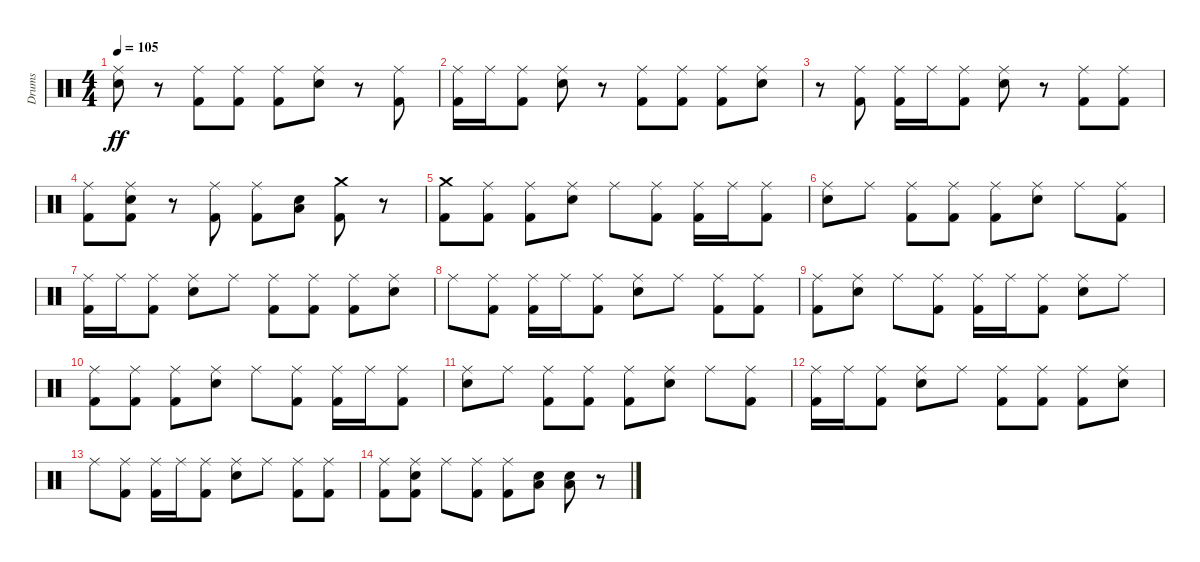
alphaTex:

\track ("Drums" "Drums") {instrument percussion}
\staff {score}
\articulation defaults
\ts (4 4)
\tempo 105
\clef neutral
\ks c
("Ride (middle)" "Electric Snare (hit)").8{dy ff} r.8 ("Ride (middle)" "Kick (hit) 2").8 ("Ride (middle)" "Kick (hit) 2").8 ("Ride (middle)" "Kick (hit) 2").8 ("Ride (middle)" "Electric Snare (hit)").8 r.8 ("Ride (middle)" "Kick (hit) 2").8 |
("Ride (middle)" "Kick (hit) 2").16 "Ride (middle)".16 ("Ride (middle)" "Kick (hit) 2").8 ("Ride (middle)" "Electric Snare (hit)").8 r.8 ("Ride (middle)" "Kick (hit) 2").8 ("Ride (middle)" "Kick (hit) 2").8 ("Ride (middle)" "Kick (hit) 2").8 ("Ride (middle)" "Electric Snare (hit)").8 |
r.8 ("Ride (middle)" "Kick (hit) 2").8 ("Ride (middle)" "Kick (hit) 2").16 "Ride (middle)".16 ("Ride (middle)" "Kick (hit) 2").8 ("Ride (middle)" "Electric Snare (hit)").8 r.8 ("Ride (middle)" "Kick (hit) 2").8 ("Ride (middle)" "Kick (hit) 2").8 |
("Ride (middle)" "Kick (hit) 2").8 ("Ride (middle)" "Electric Snare (hit)" "Kick (hit) 2").8 r.8 ("Ride (middle)" "Kick (hit) 2").8 ("Ride (middle)" "Kick (hit) 2").8 ("Electric Snare (hit)" "Low Floor Tom (hit)").8 ("Crash medium (hit)" "Kick (hit) 2").8 r.8 |
("Crash medium (hit)" "Kick (hit) 2").8 ("Ride (middle)" "Kick (hit) 2").8 ("Ride (middle)" "Kick (hit) 2").8 ("Ride (middle)" "Electric Snare (hit)").8 "Ride (middle)".8 ("Ride (middle)" "Kick (hit) 2").8 ("Ride (middle)" "Kick (hit) 2").16 "Ride (middle)".16 ("Ride (middle)" "Kick (hit) 2").8 |
("Ride (middle)" "Electric Snare (hit)").8 "Ride (middle)".8 ("Ride (middle)" "Kick (hit) 2").8 ("Ride (middle)" "Kick (hit) 2").8 ("Ride (middle)" "Kick (hit) 2").8 ("Ride (middle)" "Electric Snare (hit)").8 "Ride (middle)".8 ("Ride (middle)" "Kick (hit) 2").8 |
("Ride (middle)" "Kick (hit) 2").16 "Ride (middle)".16 ("Ride (middle)" "Kick (hit) 2").8 ("Ride (middle)" "Electric Snare (hit)").8 "Ride (middle)".8 ("Ride (middle)" "Kick (hit) 2").8 ("Ride (middle)" "Kick (hit) 2").8 ("Ride (middle)" "Kick (hit) 2").8 ("Ride (middle)" "Electric Snare (hit)").8 |
"Ride (middle)".8 ("Ride (middle)" "Kick (hit) 2").8 ("Ride (middle)" "Kick (hit) 2").16 "Ride (middle)".16 ("Ride (middle)" "Kick (hit) 2").8 ("Ride (middle)" "Electric Snare (hit)").8 "Ride (middle)".8 ("Ride (middle)" "Kick (hit) 2").8 ("Ride (middle)" "Kick (hit) 2").8 |
("Ride (middle)" "Kick (hit) 2").8 ("Ride (middle)" "Electric Snare (hit)").8 "Ride (middle)".8 ("Ride (middle)" "Kick (hit) 2").8 ("Ride (middle)" "Kick (hit) 2").16 "Ride (middle)".16 ("Ride (middle)" "Kick (hit) 2").8 ("Ride (middle)" "Electric Snare (hit)").8 "Ride (middle)".8 |
("Ride (middle)" "Kick (hit) 2").8 ("Ride (middle)" "Kick (hit) 2").8 ("Ride (middle)" "Kick (hit) 2").8 ("Ride (middle)" "Electric Snare (hit)").8 "Ride (middle)".8 ("Ride (middle)" "Kick (hit) 2").8 ("Ride (middle)" "Kick (hit) 2").16 "Ride (middle)".16 ("Ride (middle)" "Kick (hit) 2").8 |
("Ride (middle)" "Electric Snare (hit)").8 "Ride (middle)".8 ("Ride (middle)" "Kick (hit) 2").8 ("Ride (middle)" "Kick (hit) 2").8 ("Ride (middle)" "Kick (hit) 2").8 ("Ride (middle)" "Electric Snare (hit)").8 "Ride (middle)".8 ("Ride (middle)" "Kick (hit) 2").8 |
("Ride (middle)" "Kick (hit) 2").16 "Ride (middle)".16 ("Ride (middle)" "Kick (hit) 2").8 ("Ride (middle)" "Electric Snare (hit)").8 "Ride (middle)".8 ("Ride (middle)" "Kick (hit) 2").8 ("Ride (middle)" "Kick (hit) 2").8 ("Ride (middle)" "Kick (hit) 2").8 ("Ride (middle)" "Electric Snare (hit)").8 |
"Ride (middle)".8 ("Ride (middle)" "Kick (hit) 2").8 ("Ride (middle)" "Kick (hit) 2").16 "Ride (middle)".16 ("Ride (middle)" "Kick (hit) 2").8 ("Ride (middle)" "Electric Snare (hit)").8 "Ride (middle)".8 ("Ride (middle)" "Kick (hit) 2").8 ("Ride (middle)" "Kick (hit) 2").8 |
("Ride (middle)" "Kick (hit) 2").8 ("Ride (middle)" "Electric Snare (hit)" "Kick (hit) 2").8 "Ride (middle)".8 ("Ride (middle)" "Kick (hit) 2").8 ("Ride (middle)" "Kick (hit) 2").8 ("Electric Snare (hit)" "Low Floor Tom (hit)").8 ("Electric Snare (hit)" "Low Floor Tom (hit)").8 r.8
